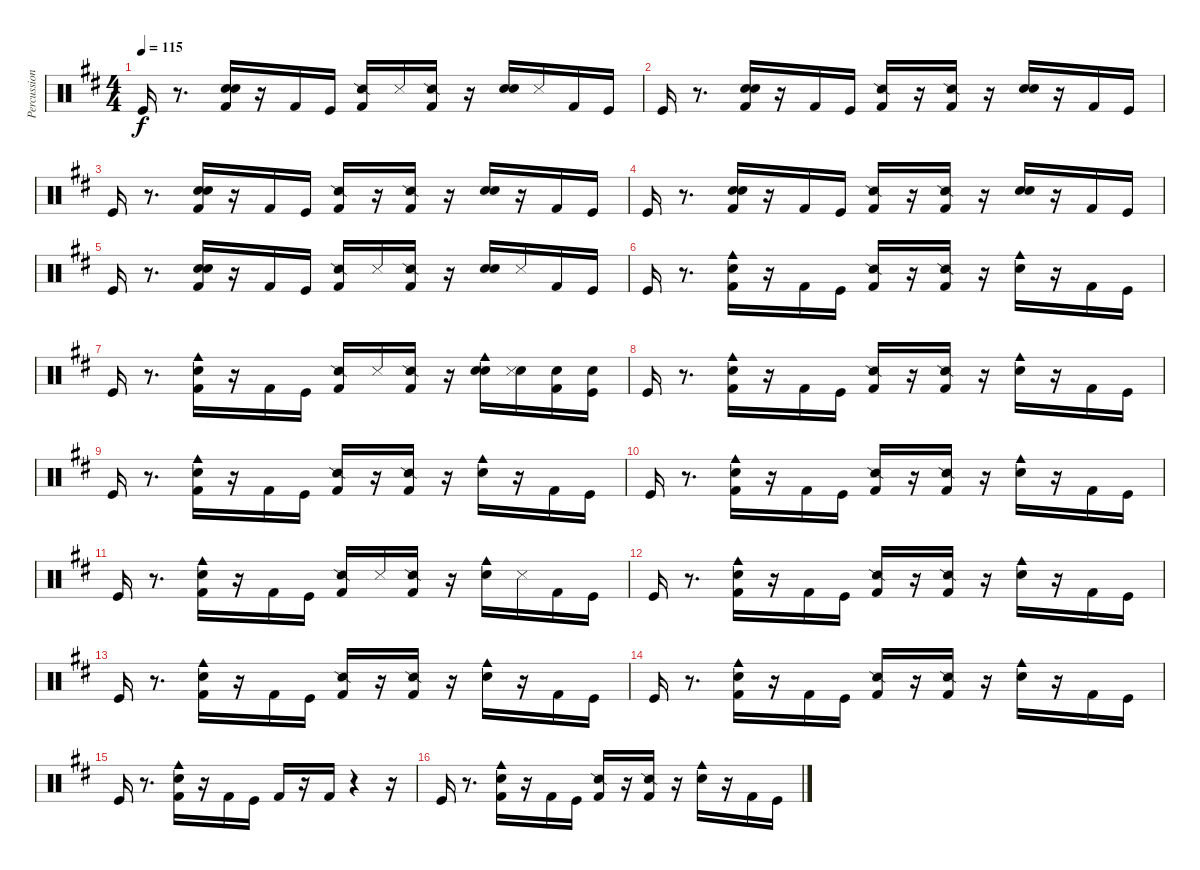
\track ("Percussions" "Percussion") {instrument percussion}
\staff {score}
\articulation defaults
\ts (4 4)
\tempo 115
\clef neutral
\ks bminor "Kick (hit)".16{dy f}
r.8{d} ("Kick (hit) 2" "Snare (hit) 2" "Hand Clap (hit)").16 r.16 "Kick (hit) 2".16 "Kick (hit)".16 ("Snare (side stick) 2" "Kick (hit) 2").16 "Metronome (hit)".16 ("Snare (side stick) 2" "Kick (hit) 2").16 r.16 ("Hand Clap (hit)" "Snare (hit) 2").16 "Metronome (hit)".16 "Kick (hit) 2".16 "Kick (hit)".16 |
"Kick (hit)".16 r.8{d} ("Kick (hit) 2" "Hand Clap (hit)" "Snare (hit) 2").16 r.16 "Kick (hit) 2".16 "Kick (hit)".16 ("Snare (side stick) 2" "Kick (hit) 2").16 r.16 ("Snare (side stick) 2" "Kick (hit) 2").16 r.16 ("Hand Clap (hit)" "Snare (hit) 2").16 r.16 "Kick (hit) 2".16 "Kick (hit)".16 |
"Kick (hit)".16 r.8{d} ("Kick (hit) 2" "Hand Clap (hit)" "Snare (hit) 2").16 r.16 "Kick (hit) 2".16 "Kick (hit)".16 ("Snare (side stick) 2" "Kick (hit) 2").16 r.16 ("Snare (side stick) 2" "Kick (hit) 2").16 r.16 ("Hand Clap (hit)" "Snare (hit) 2").16 r.16 "Kick (hit) 2".16 "Kick (hit)".16 |
"Kick (hit)".16 r.8{d} ("Kick (hit) 2" "Hand Clap (hit)" "Snare (hit) 2").16 r.16 "Kick (hit) 2".16 "Kick (hit)".16 ("Snare (side stick) 2" "Kick (hit) 2").16 r.16 ("Snare (side stick) 2" "Kick (hit) 2").16 r.16 ("Hand Clap (hit)" "Snare (hit) 2").16 r.16 "Kick (hit) 2".16 "Kick (hit)".16 |
"Kick (hit)".16 r.8{d} ("Kick (hit) 2" "Hand Clap (hit)" "Snare (hit) 2").16 r.16 "Kick (hit) 2".16 "Kick (hit)".16 ("Snare (side stick) 2" "Kick (hit) 2").16 "Metronome (hit)".16 ("Snare (side stick) 2" "Kick (hit) 2").16 r.16 ("Hand Clap (hit)" "Snare (hit) 2").16 "Metronome (hit)".16 "Kick (hit) 2".16 "Kick (hit)".16 |
"Kick (hit)".16 r.8{d} ("Cowbell medium (hit)" "Hand Clap (hit)" "Kick (hit) 2").16 r.16 "Kick (hit) 2".16 "Kick (hit)".16 ("Kick (hit) 2" "Snare (side stick) 2").16 r.16 ("Kick (hit) 2" "Snare (side stick) 2").16 r.16 ("Cowbell medium (hit)" "Hand Clap (hit)").16 r.16 "Kick (hit) 2".16 "Kick (hit)".16 |
"Kick (hit)".16 r.8{d} ("Cowbell medium (hit)" "Hand Clap (hit)" "Kick (hit) 2").16 r.16 "Kick (hit) 2".16 "Kick (hit)".16 ("Kick (hit) 2" "Snare (side stick) 2").16 "Metronome (hit)".16 ("Kick (hit) 2" "Snare (side stick) 2").16 r.16 ("Cowbell medium (hit)" "Hand Clap (hit)" "Snare (hit) 2").16 ("Snare (hit) 2" "Metronome (hit)").16 ("Snare (hit) 2" "Kick (hit) 2").16 ("Snare (hit) 2" "Kick (hit)").16 |
"Kick (hit)".16 r.8{d} ("Cowbell medium (hit)" "Hand Clap (hit)" "Kick (hit) 2").16 r.16 "Kick (hit) 2".16 "Kick (hit)".16 ("Kick (hit) 2" "Snare (side stick) 2").16 r.16 ("Kick (hit) 2" "Snare (side stick) 2").16 r.16 ("Cowbell medium (hit)" "Hand Clap (hit)").16 r.16 "Kick (hit) 2".16 "Kick (hit)".16 |
"Kick (hit)".16 r.8{d} ("Cowbell medium (hit)" "Hand Clap (hit)" "Kick (hit) 2").16 r.16 "Kick (hit) 2".16 "Kick (hit)".16 ("Kick (hit) 2" "Snare (side stick) 2").16 r.16 ("Kick (hit) 2" "Snare (side stick) 2").16 r.16 ("Cowbell medium (hit)" "Hand Clap (hit)").16 r.16 "Kick (hit) 2".16 "Kick (hit)".16 |
"Kick (hit)".16 r.8{d} ("Cowbell medium (hit)" "Hand Clap (hit)" "Kick (hit) 2").16 r.16 "Kick (hit) 2".16 "Kick (hit)".16 ("Kick (hit) 2" "Snare (side stick) 2").16 r.16 ("Kick (hit) 2" "Snare (side stick) 2").16 r.16 ("Cowbell medium (hit)" "Hand Clap (hit)").16 r.16 "Kick (hit) 2".16 "Kick (hit)".16 |
"Kick (hit)".16 r.8{d} ("Cowbell medium (hit)" "Hand Clap (hit)" "Kick (hit) 2").16 r.16 "Kick (hit) 2".16 "Kick (hit)".16 ("Kick (hit) 2" "Snare (side stick) 2").16 "Metronome (hit)".16 ("Kick (hit) 2" "Snare (side stick) 2").16 r.16 ("Cowbell medium (hit)" "Hand Clap (hit)").16 "Metronome (hit)".16 "Kick (hit) 2".16 "Kick (hit)".16 |
"Kick (hit)".16 r.8{d} ("Cowbell medium (hit)" "Hand Clap (hit)" "Kick (hit) 2").16 r.16 "Kick (hit) 2".16 "Kick (hit)".16 ("Kick (hit) 2" "Snare (side stick) 2").16 r.16 ("Kick (hit) 2" "Snare (side stick) 2").16 r.16 ("Cowbell medium (hit)" "Hand Clap (hit)").16 r.16 "Kick (hit) 2".16 "Kick (hit)".16 |
"Kick (hit)".16 r.8{d} ("Cowbell medium (hit)" "Hand Clap (hit)" "Kick (hit) 2").16 r.16 "Kick (hit) 2".16 "Kick (hit)".16 ("Kick (hit) 2" "Snare (side stick) 2").16 r.16 ("Kick (hit) 2" "Snare (side stick) 2").16 r.16 ("Cowbell medium (hit)" "Hand Clap (hit)").16 r.16 "Kick (hit) 2".16 "Kick (hit)".16 |
"Kick (hit)".16 r.8{d} ("Cowbell medium (hit)" "Hand Clap (hit)" "Kick (hit) 2").16 r.16 "Kick (hit) 2".16 "Kick (hit)".16 ("Kick (hit) 2" "Snare (side stick) 2").16 r.16 ("Kick (hit) 2" "Snare (side stick) 2").16 r.16 ("Cowbell medium (hit)" "Hand Clap (hit)").16 r.16 "Kick (hit) 2".16 "Kick (hit)".16 |
"Kick (hit)".16 r.8{d} ("Cowbell medium (hit)" "Hand Clap (hit)" "Kick (hit) 2").16 r.16 "Kick (hit) 2".16 "Kick (hit)".16 "Kick (hit) 2".16 r.16 "Kick (hit) 2".16 r.4 r.16 |
"Kick (hit)".16 r.8{d} ("Cowbell medium (hit)" "Hand Clap (hit)" "Kick (hit) 2").16 r.16 "Kick (hit) 2".16 "Kick (hit)".16 ("Kick (hit) 2" "Snare (side stick) 2").16 r.16 ("Kick (hit) 2" "Snare (side stick) 2").16 r.16 ("Cowbell medium (hit)" "Hand Clap (hit)").16 r.16 "Kick (hit) 2".16 "Kick (hit)".16
